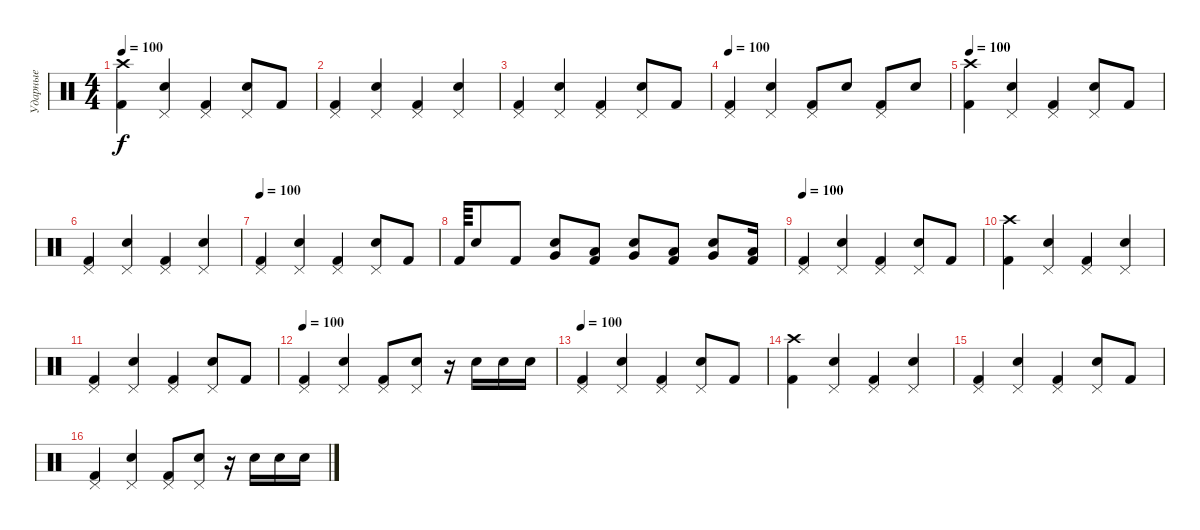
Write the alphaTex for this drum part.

\track ("Ударные" "Ударные") {instrument percussion}
\staff {score}
\articulation defaults
\ts (4 4)
\tempo 100
\clef neutral
\ks c
("Crash high (hit)" "Kick (hit) 2").4{dy f} ("Pedal Hi-Hat (hit)" "Electric Snare (hit)").4 ("Pedal Hi-Hat (hit)" "Kick (hit) 2").4 ("Pedal Hi-Hat (hit)" "Electric Snare (hit)").8 "Kick (hit) 2".8 |
("Pedal Hi-Hat (hit)" "Kick (hit) 2").4 ("Pedal Hi-Hat (hit)" "Electric Snare (hit)").4 ("Pedal Hi-Hat (hit)" "Kick (hit) 2").4 ("Pedal Hi-Hat (hit)" "Electric Snare (hit)").4 |
("Pedal Hi-Hat (hit)" "Kick (hit) 2").4 ("Pedal Hi-Hat (hit)" "Electric Snare (hit)").4 ("Pedal Hi-Hat (hit)" "Kick (hit) 2").4 ("Pedal Hi-Hat (hit)" "Electric Snare (hit)").8 "Kick (hit) 2".8 |
\tempo 100
("Pedal Hi-Hat (hit)" "Kick (hit) 2").4 ("Pedal Hi-Hat (hit)" "Electric Snare (hit)").4 ("Pedal Hi-Hat (hit)" "Kick (hit) 2").8 "Electric Snare (hit)".8 ("Pedal Hi-Hat (hit)" "Kick (hit) 2").8 "Electric Snare (hit)".8 |
\tempo 100
("Crash high (hit)" "Kick (hit) 2").4 ("Pedal Hi-Hat (hit)" "Electric Snare (hit)").4 ("Pedal Hi-Hat (hit)" "Kick (hit) 2").4 ("Pedal Hi-Hat (hit)" "Electric Snare (hit)").8 "Kick (hit) 2".8 |
("Pedal Hi-Hat (hit)" "Kick (hit) 2").4 ("Pedal Hi-Hat (hit)" "Electric Snare (hit)").4 ("Pedal Hi-Hat (hit)" "Kick (hit) 2").4 ("Pedal Hi-Hat (hit)" "Electric Snare (hit)").4 |
\tempo 100
("Pedal Hi-Hat (hit)" "Kick (hit) 2").4 ("Pedal Hi-Hat (hit)" "Electric Snare (hit)").4 ("Pedal Hi-Hat (hit)" "Kick (hit) 2").4 ("Pedal Hi-Hat (hit)" "Electric Snare (hit)").8 "Kick (hit) 2".8 |
"Kick (hit) 2".64 "Electric Snare (hit)".8 "Kick (hit) 2".8 ("Very Low Tom (hit)" "Electric Snare (hit)").8 ("Low Floor Tom (hit)" "Kick (hit) 2").8 ("Very Low Tom (hit)" "Electric Snare (hit)").8 ("Low Floor Tom (hit)" "Kick (hit) 2").8 ("Very Low Tom (hit)" "Electric Snare (hit)").8 ("Low Floor Tom (hit)" "Kick (hit) 2").16 |
\tempo 100
("Pedal Hi-Hat (hit)" "Kick (hit) 2").4 ("Pedal Hi-Hat (hit)" "Electric Snare (hit)").4 ("Pedal Hi-Hat (hit)" "Kick (hit) 2").4 ("Pedal Hi-Hat (hit)" "Electric Snare (hit)").8 "Kick (hit) 2".8 |
("Crash high (hit)" "Kick (hit) 2").4 ("Pedal Hi-Hat (hit)" "Electric Snare (hit)").4 ("Pedal Hi-Hat (hit)" "Kick (hit) 2").4 ("Pedal Hi-Hat (hit)" "Electric Snare (hit)").4 |
("Pedal Hi-Hat (hit)" "Kick (hit) 2").4 ("Pedal Hi-Hat (hit)" "Electric Snare (hit)").4 ("Pedal Hi-Hat (hit)" "Kick (hit) 2").4 ("Pedal Hi-Hat (hit)" "Electric Snare (hit)").8 "Kick (hit) 2".8 |
\tempo 100
("Pedal Hi-Hat (hit)" "Kick (hit) 2").4 ("Pedal Hi-Hat (hit)" "Electric Snare (hit)").4 ("Pedal Hi-Hat (hit)" "Kick (hit) 2").8 ("Pedal Hi-Hat (hit)" "Electric Snare (hit)").8 r.16 "Electric Snare (hit)".16 "Electric Snare (hit)".16 "Electric Snare (hit)".16 |
\tempo 100
("Pedal Hi-Hat (hit)" "Kick (hit) 2").4 ("Pedal Hi-Hat (hit)" "Electric Snare (hit)").4 ("Pedal Hi-Hat (hit)" "Kick (hit) 2").4 ("Pedal Hi-Hat (hit)" "Electric Snare (hit)").8 "Kick (hit) 2".8 |
("Crash high (hit)" "Kick (hit) 2").4 ("Pedal Hi-Hat (hit)" "Electric Snare (hit)").4 ("Pedal Hi-Hat (hit)" "Kick (hit) 2").4 ("Pedal Hi-Hat (hit)" "Electric Snare (hit)").4 |
("Pedal Hi-Hat (hit)" "Kick (hit) 2").4 ("Pedal Hi-Hat (hit)" "Electric Snare (hit)").4 ("Pedal Hi-Hat (hit)" "Kick (hit) 2").4 ("Pedal Hi-Hat (hit)" "Electric Snare (hit)").8 "Kick (hit) 2".8 |
("Pedal Hi-Hat (hit)" "Kick (hit) 2").4 ("Pedal Hi-Hat (hit)" "Electric Snare (hit)").4 ("Pedal Hi-Hat (hit)" "Kick (hit) 2").8 ("Pedal Hi-Hat (hit)" "Electric Snare (hit)").8 r.16 "Electric Snare (hit)".16 "Electric Snare (hit)".16 "Electric Snare (hit)".16
